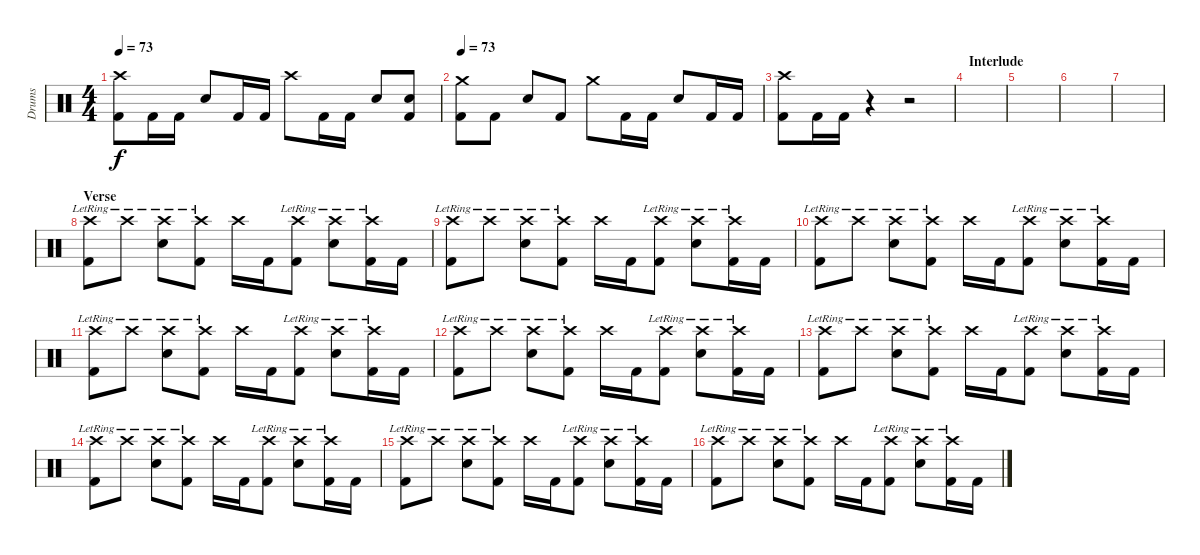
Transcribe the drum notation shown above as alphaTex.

\track ("Drums" "Drums") {instrument percussion}
\staff {score}
\articulation defaults
\ts (4 4)
\tempo 73
\clef neutral
\ks c
("Crash high (hit)" "Kick (hit) 2").8{dy f} "Kick (hit) 2".16 "Kick (hit) 2".16 "Snare (hit) 2".8 "Kick (hit) 2".16 "Kick (hit) 2".16 "Crash high (hit)".8 "Kick (hit) 2".16 "Kick (hit) 2".16 "Snare (hit) 2".8 ("Snare (hit) 2" "Kick (hit) 2").8 |
\tempo 73
("Crash medium (hit)" "Kick (hit) 2").8 "Kick (hit) 2".8 "Snare (hit) 2".8 "Kick (hit) 2".8 "Crash medium (hit)".8 "Kick (hit) 2".16 "Kick (hit) 2".16 "Snare (hit) 2".8 "Kick (hit) 2".16 "Kick (hit) 2".16 |
("Crash high (hit)" "Kick (hit) 2").8 "Kick (hit) 2".16 "Kick (hit) 2".16 r.4 r.2 |
\section ("" "Interlude")
|
|
|
|
\section ("" "Verse")
("Crash high (hit)"{lr} "Kick (hit) 2").8 "Crash high (hit)"{lr}.8 ("Crash high (hit)"{lr} "Snare (hit) 2").8 ("Crash high (hit)"{lr} "Kick (hit) 2").8 "Crash high (hit)".16 "Kick (hit) 2".16 ("Crash high (hit)"{lr} "Kick (hit) 2").8 ("Crash high (hit)"{lr} "Snare (hit) 2").8 ("Crash high (hit)"{lr} "Kick (hit) 2").16 "Kick (hit) 2".16 |
("Crash high (hit)"{lr} "Kick (hit) 2").8 "Crash high (hit)"{lr}.8 ("Crash high (hit)"{lr} "Snare (hit) 2").8 ("Crash high (hit)"{lr} "Kick (hit) 2").8 "Crash high (hit)".16 "Kick (hit) 2".16 ("Crash high (hit)"{lr} "Kick (hit) 2").8 ("Crash high (hit)"{lr} "Snare (hit) 2").8 ("Crash high (hit)"{lr} "Kick (hit) 2").16 "Kick (hit) 2".16 |
("Crash high (hit)"{lr} "Kick (hit) 2").8 "Crash high (hit)"{lr}.8 ("Crash high (hit)"{lr} "Snare (hit) 2").8 ("Crash high (hit)"{lr} "Kick (hit) 2").8 "Crash high (hit)".16 "Kick (hit) 2".16 ("Crash high (hit)"{lr} "Kick (hit) 2").8 ("Crash high (hit)"{lr} "Snare (hit) 2").8 ("Crash high (hit)"{lr} "Kick (hit) 2").16 "Kick (hit) 2".16 |
("Crash high (hit)"{lr} "Kick (hit) 2").8 "Crash high (hit)"{lr}.8 ("Crash high (hit)"{lr} "Snare (hit) 2").8 ("Crash high (hit)"{lr} "Kick (hit) 2").8 "Crash high (hit)".16 "Kick (hit) 2".16 ("Crash high (hit)"{lr} "Kick (hit) 2").8 ("Crash high (hit)"{lr} "Snare (hit) 2").8 ("Crash high (hit)"{lr} "Kick (hit) 2").16 "Kick (hit) 2".16 |
("Crash high (hit)"{lr} "Kick (hit) 2").8 "Crash high (hit)"{lr}.8 ("Crash high (hit)"{lr} "Snare (hit) 2").8 ("Crash high (hit)"{lr} "Kick (hit) 2").8 "Crash high (hit)".16 "Kick (hit) 2".16 ("Crash high (hit)"{lr} "Kick (hit) 2").8 ("Crash high (hit)"{lr} "Snare (hit) 2").8 ("Crash high (hit)"{lr} "Kick (hit) 2").16 "Kick (hit) 2".16 |
("Crash high (hit)"{lr} "Kick (hit) 2").8 "Crash high (hit)"{lr}.8 ("Crash high (hit)"{lr} "Snare (hit) 2").8 ("Crash high (hit)"{lr} "Kick (hit) 2").8 "Crash high (hit)".16 "Kick (hit) 2".16 ("Crash high (hit)"{lr} "Kick (hit) 2").8 ("Crash high (hit)"{lr} "Snare (hit) 2").8 ("Crash high (hit)"{lr} "Kick (hit) 2").16 "Kick (hit) 2".16 |
("Crash high (hit)"{lr} "Kick (hit) 2").8 "Crash high (hit)"{lr}.8 ("Crash high (hit)"{lr} "Snare (hit) 2").8 ("Crash high (hit)"{lr} "Kick (hit) 2").8 "Crash high (hit)".16 "Kick (hit) 2".16 ("Crash high (hit)"{lr} "Kick (hit) 2").8 ("Crash high (hit)"{lr} "Snare (hit) 2").8 ("Crash high (hit)"{lr} "Kick (hit) 2").16 "Kick (hit) 2".16 |
("Crash high (hit)"{lr} "Kick (hit) 2").8 "Crash high (hit)"{lr}.8 ("Crash high (hit)"{lr} "Snare (hit) 2").8 ("Crash high (hit)"{lr} "Kick (hit) 2").8 "Crash high (hit)".16 "Kick (hit) 2".16 ("Crash high (hit)"{lr} "Kick (hit) 2").8 ("Crash high (hit)"{lr} "Snare (hit) 2").8 ("Crash high (hit)"{lr} "Kick (hit) 2").16 "Kick (hit) 2".16 |
("Crash high (hit)"{lr} "Kick (hit) 2").8 "Crash high (hit)"{lr}.8 ("Crash high (hit)"{lr} "Snare (hit) 2").8 ("Crash high (hit)"{lr} "Kick (hit) 2").8 "Crash high (hit)".16 "Kick (hit) 2".16 ("Crash high (hit)"{lr} "Kick (hit) 2").8 ("Crash high (hit)"{lr} "Snare (hit) 2").8 ("Crash high (hit)"{lr} "Kick (hit) 2").16 "Kick (hit) 2".16
